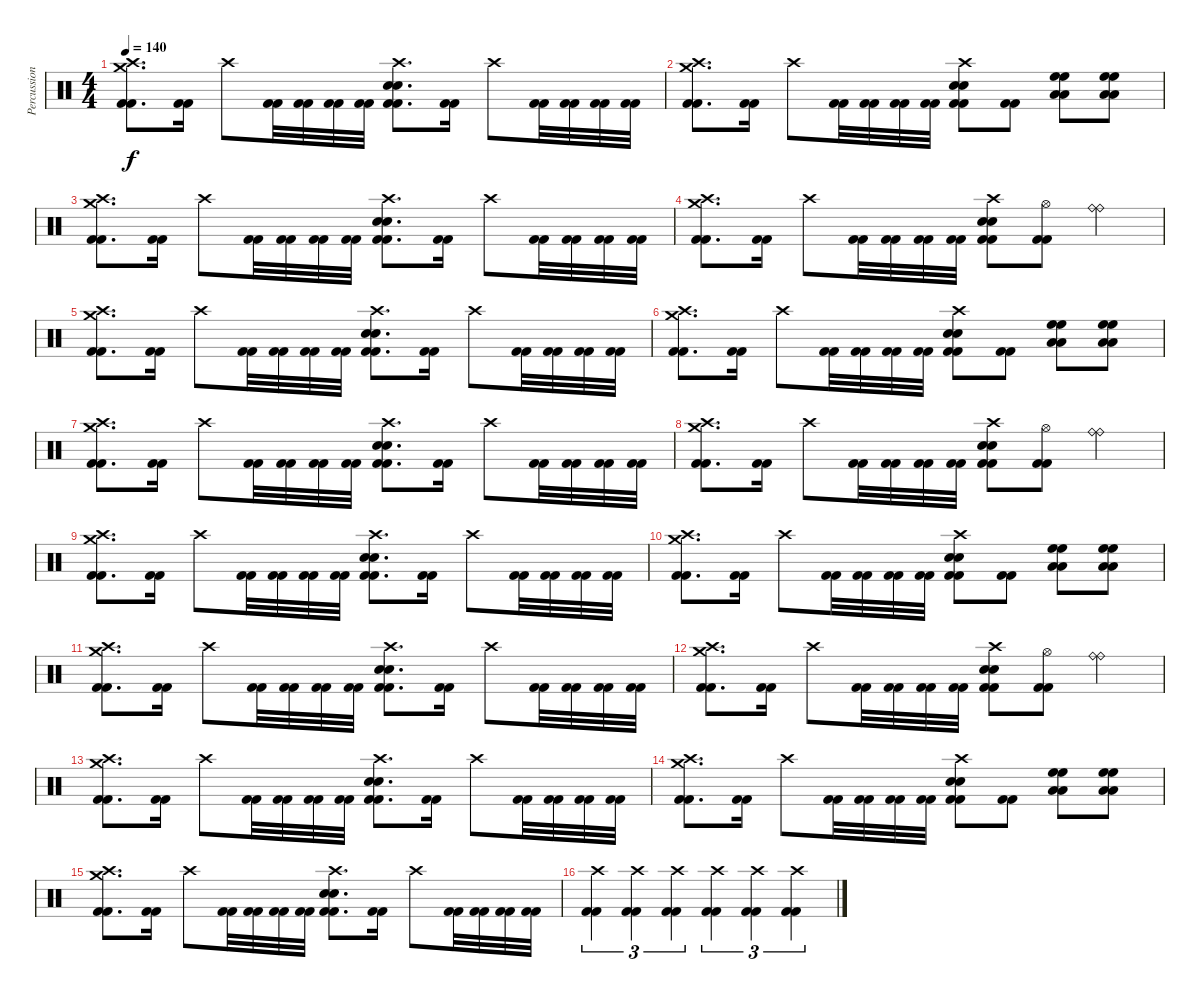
\track ("Percussions" "Percussion") {instrument percussion}
\staff {score}
\articulation defaults
\ts (4 4)
\tempo 140
\clef neutral
\ks c
("Crash high (hit)" "Crash medium (hit)" "Kick (hit) 2" "Kick (hit) 2").8{d dy f} ("Kick (hit) 2" "Kick (hit) 2").16 "Crash high (hit)".8 ("Kick (hit) 2" "Kick (hit) 2").32 ("Kick (hit) 2" "Kick (hit) 2").32 ("Kick (hit) 2" "Kick (hit) 2").32 ("Kick (hit) 2" "Kick (hit) 2").32 ("Crash high (hit)" "Electric Snare (hit)" "Electric Snare (hit)" "Kick (hit) 2" "Kick (hit) 2").8{d} ("Kick (hit) 2" "Kick (hit) 2").16 "Crash high (hit)".8 ("Kick (hit) 2" "Kick (hit) 2").32 ("Kick (hit) 2" "Kick (hit) 2").32 ("Kick (hit) 2" "Kick (hit) 2").32 ("Kick (hit) 2" "Kick (hit) 2").32 |
("Crash high (hit)" "Crash medium (hit)" "Kick (hit) 2" "Kick (hit) 2").8{d} ("Kick (hit) 2" "Kick (hit) 2").16 "Crash high (hit)".8 ("Kick (hit) 2" "Kick (hit) 2").32 ("Kick (hit) 2" "Kick (hit) 2").32 ("Kick (hit) 2" "Kick (hit) 2").32 ("Kick (hit) 2" "Kick (hit) 2").32 ("Crash high (hit)" "Electric Snare (hit)" "Electric Snare (hit)" "Kick (hit) 2" "Kick (hit) 2").8 ("Kick (hit) 2" "Kick (hit) 2").8 ("Low Tom (hit)" "Low Tom (hit)" "High Floor Tom (hit)" "High Floor Tom (hit)").8 ("Low Tom (hit)" "Low Tom (hit)" "High Floor Tom (hit)" "High Floor Tom (hit)").8 |
("Crash high (hit)" "Crash medium (hit)" "Kick (hit) 2" "Kick (hit) 2").8{d} ("Kick (hit) 2" "Kick (hit) 2").16 "Crash high (hit)".8 ("Kick (hit) 2" "Kick (hit) 2").32 ("Kick (hit) 2" "Kick (hit) 2").32 ("Kick (hit) 2" "Kick (hit) 2").32 ("Kick (hit) 2" "Kick (hit) 2").32 ("Crash high (hit)" "Electric Snare (hit)" "Electric Snare (hit)" "Kick (hit) 2" "Kick (hit) 2").8{d} ("Kick (hit) 2" "Kick (hit) 2").16 "Crash high (hit)".8 ("Kick (hit) 2" "Kick (hit) 2").32 ("Kick (hit) 2" "Kick (hit) 2").32 ("Kick (hit) 2" "Kick (hit) 2").32 ("Kick (hit) 2" "Kick (hit) 2").32 |
("Crash high (hit)" "Crash medium (hit)" "Kick (hit) 2" "Kick (hit) 2").8{d} ("Kick (hit) 2" "Kick (hit) 2").16 "Crash high (hit)".8 ("Kick (hit) 2" "Kick (hit) 2").32 ("Kick (hit) 2" "Kick (hit) 2").32 ("Kick (hit) 2" "Kick (hit) 2").32 ("Kick (hit) 2" "Kick (hit) 2").32 ("Crash high (hit)" "Electric Snare (hit)" "Electric Snare (hit)" "Kick (hit) 2" "Kick (hit) 2").8 ("Hi-Hat (open)" "Kick (hit) 2" "Kick (hit) 2").8 ("Ride (bell)" "Ride (bell)").4 |
("Crash high (hit)" "Crash medium (hit)" "Kick (hit) 2" "Kick (hit) 2").8{d} ("Kick (hit) 2" "Kick (hit) 2").16 "Crash high (hit)".8 ("Kick (hit) 2" "Kick (hit) 2").32 ("Kick (hit) 2" "Kick (hit) 2").32 ("Kick (hit) 2" "Kick (hit) 2").32 ("Kick (hit) 2" "Kick (hit) 2").32 ("Crash high (hit)" "Electric Snare (hit)" "Electric Snare (hit)" "Kick (hit) 2" "Kick (hit) 2").8{d} ("Kick (hit) 2" "Kick (hit) 2").16 "Crash high (hit)".8 ("Kick (hit) 2" "Kick (hit) 2").32 ("Kick (hit) 2" "Kick (hit) 2").32 ("Kick (hit) 2" "Kick (hit) 2").32 ("Kick (hit) 2" "Kick (hit) 2").32 |
("Crash high (hit)" "Crash medium (hit)" "Kick (hit) 2" "Kick (hit) 2").8{d} ("Kick (hit) 2" "Kick (hit) 2").16 "Crash high (hit)".8 ("Kick (hit) 2" "Kick (hit) 2").32 ("Kick (hit) 2" "Kick (hit) 2").32 ("Kick (hit) 2" "Kick (hit) 2").32 ("Kick (hit) 2" "Kick (hit) 2").32 ("Crash high (hit)" "Electric Snare (hit)" "Electric Snare (hit)" "Kick (hit) 2" "Kick (hit) 2").8 ("Kick (hit) 2" "Kick (hit) 2").8 ("Low Tom (hit)" "Low Tom (hit)" "High Floor Tom (hit)" "High Floor Tom (hit)").8 ("Low Tom (hit)" "Low Tom (hit)" "High Floor Tom (hit)" "High Floor Tom (hit)").8 |
("Crash high (hit)" "Crash medium (hit)" "Kick (hit) 2" "Kick (hit) 2").8{d} ("Kick (hit) 2" "Kick (hit) 2").16 "Crash high (hit)".8 ("Kick (hit) 2" "Kick (hit) 2").32 ("Kick (hit) 2" "Kick (hit) 2").32 ("Kick (hit) 2" "Kick (hit) 2").32 ("Kick (hit) 2" "Kick (hit) 2").32 ("Crash high (hit)" "Electric Snare (hit)" "Electric Snare (hit)" "Kick (hit) 2" "Kick (hit) 2").8{d} ("Kick (hit) 2" "Kick (hit) 2").16 "Crash high (hit)".8 ("Kick (hit) 2" "Kick (hit) 2").32 ("Kick (hit) 2" "Kick (hit) 2").32 ("Kick (hit) 2" "Kick (hit) 2").32 ("Kick (hit) 2" "Kick (hit) 2").32 |
("Crash high (hit)" "Crash medium (hit)" "Kick (hit) 2" "Kick (hit) 2").8{d} ("Kick (hit) 2" "Kick (hit) 2").16 "Crash high (hit)".8 ("Kick (hit) 2" "Kick (hit) 2").32 ("Kick (hit) 2" "Kick (hit) 2").32 ("Kick (hit) 2" "Kick (hit) 2").32 ("Kick (hit) 2" "Kick (hit) 2").32 ("Crash high (hit)" "Electric Snare (hit)" "Electric Snare (hit)" "Kick (hit) 2" "Kick (hit) 2").8 ("Hi-Hat (open)" "Kick (hit) 2" "Kick (hit) 2").8 ("Ride (bell)" "Ride (bell)").4 |
("Crash high (hit)" "Crash medium (hit)" "Kick (hit) 2" "Kick (hit) 2").8{d} ("Kick (hit) 2" "Kick (hit) 2").16 "Crash high (hit)".8 ("Kick (hit) 2" "Kick (hit) 2").32 ("Kick (hit) 2" "Kick (hit) 2").32 ("Kick (hit) 2" "Kick (hit) 2").32 ("Kick (hit) 2" "Kick (hit) 2").32 ("Crash high (hit)" "Electric Snare (hit)" "Electric Snare (hit)" "Kick (hit) 2" "Kick (hit) 2").8{d} ("Kick (hit) 2" "Kick (hit) 2").16 "Crash high (hit)".8 ("Kick (hit) 2" "Kick (hit) 2").32 ("Kick (hit) 2" "Kick (hit) 2").32 ("Kick (hit) 2" "Kick (hit) 2").32 ("Kick (hit) 2" "Kick (hit) 2").32 |
("Crash high (hit)" "Crash medium (hit)" "Kick (hit) 2" "Kick (hit) 2").8{d} ("Kick (hit) 2" "Kick (hit) 2").16 "Crash high (hit)".8 ("Kick (hit) 2" "Kick (hit) 2").32 ("Kick (hit) 2" "Kick (hit) 2").32 ("Kick (hit) 2" "Kick (hit) 2").32 ("Kick (hit) 2" "Kick (hit) 2").32 ("Crash high (hit)" "Electric Snare (hit)" "Electric Snare (hit)" "Kick (hit) 2" "Kick (hit) 2").8 ("Kick (hit) 2" "Kick (hit) 2").8 ("Low Tom (hit)" "Low Tom (hit)" "High Floor Tom (hit)" "High Floor Tom (hit)").8 ("Low Tom (hit)" "Low Tom (hit)" "High Floor Tom (hit)" "High Floor Tom (hit)").8 |
("Crash high (hit)" "Crash medium (hit)" "Kick (hit) 2" "Kick (hit) 2").8{d} ("Kick (hit) 2" "Kick (hit) 2").16 "Crash high (hit)".8 ("Kick (hit) 2" "Kick (hit) 2").32 ("Kick (hit) 2" "Kick (hit) 2").32 ("Kick (hit) 2" "Kick (hit) 2").32 ("Kick (hit) 2" "Kick (hit) 2").32 ("Crash high (hit)" "Electric Snare (hit)" "Electric Snare (hit)" "Kick (hit) 2" "Kick (hit) 2").8{d} ("Kick (hit) 2" "Kick (hit) 2").16 "Crash high (hit)".8 ("Kick (hit) 2" "Kick (hit) 2").32 ("Kick (hit) 2" "Kick (hit) 2").32 ("Kick (hit) 2" "Kick (hit) 2").32 ("Kick (hit) 2" "Kick (hit) 2").32 |
("Crash high (hit)" "Crash medium (hit)" "Kick (hit) 2" "Kick (hit) 2").8{d} ("Kick (hit) 2" "Kick (hit) 2").16 "Crash high (hit)".8 ("Kick (hit) 2" "Kick (hit) 2").32 ("Kick (hit) 2" "Kick (hit) 2").32 ("Kick (hit) 2" "Kick (hit) 2").32 ("Kick (hit) 2" "Kick (hit) 2").32 ("Crash high (hit)" "Electric Snare (hit)" "Electric Snare (hit)" "Kick (hit) 2" "Kick (hit) 2").8 ("Hi-Hat (open)" "Kick (hit) 2" "Kick (hit) 2").8 ("Ride (bell)" "Ride (bell)").4 |
("Crash high (hit)" "Crash medium (hit)" "Kick (hit) 2" "Kick (hit) 2").8{d} ("Kick (hit) 2" "Kick (hit) 2").16 "Crash high (hit)".8 ("Kick (hit) 2" "Kick (hit) 2").32 ("Kick (hit) 2" "Kick (hit) 2").32 ("Kick (hit) 2" "Kick (hit) 2").32 ("Kick (hit) 2" "Kick (hit) 2").32 ("Crash high (hit)" "Electric Snare (hit)" "Electric Snare (hit)" "Kick (hit) 2" "Kick (hit) 2").8{d} ("Kick (hit) 2" "Kick (hit) 2").16 "Crash high (hit)".8 ("Kick (hit) 2" "Kick (hit) 2").32 ("Kick (hit) 2" "Kick (hit) 2").32 ("Kick (hit) 2" "Kick (hit) 2").32 ("Kick (hit) 2" "Kick (hit) 2").32 |
("Crash high (hit)" "Crash medium (hit)" "Kick (hit) 2" "Kick (hit) 2").8{d} ("Kick (hit) 2" "Kick (hit) 2").16 "Crash high (hit)".8 ("Kick (hit) 2" "Kick (hit) 2").32 ("Kick (hit) 2" "Kick (hit) 2").32 ("Kick (hit) 2" "Kick (hit) 2").32 ("Kick (hit) 2" "Kick (hit) 2").32 ("Crash high (hit)" "Electric Snare (hit)" "Electric Snare (hit)" "Kick (hit) 2" "Kick (hit) 2").8 ("Kick (hit) 2" "Kick (hit) 2").8 ("Low Tom (hit)" "Low Tom (hit)" "High Floor Tom (hit)" "High Floor Tom (hit)").8 ("Low Tom (hit)" "Low Tom (hit)" "High Floor Tom (hit)" "High Floor Tom (hit)").8 |
("Crash high (hit)" "Crash medium (hit)" "Kick (hit) 2" "Kick (hit) 2").8{d} ("Kick (hit) 2" "Kick (hit) 2").16 "Crash high (hit)".8 ("Kick (hit) 2" "Kick (hit) 2").32 ("Kick (hit) 2" "Kick (hit) 2").32 ("Kick (hit) 2" "Kick (hit) 2").32 ("Kick (hit) 2" "Kick (hit) 2").32 ("Crash high (hit)" "Electric Snare (hit)" "Electric Snare (hit)" "Kick (hit) 2" "Kick (hit) 2").8{d} ("Kick (hit) 2" "Kick (hit) 2").16 "Crash high (hit)".8 ("Kick (hit) 2" "Kick (hit) 2").32 ("Kick (hit) 2" "Kick (hit) 2").32 ("Kick (hit) 2" "Kick (hit) 2").32 ("Kick (hit) 2" "Kick (hit) 2").32 |
("Crash high (hit)" "Kick (hit) 2" "Kick (hit) 2").4{tu (3 2)} ("Crash high (hit)" "Kick (hit) 2" "Kick (hit) 2").4{tu (3 2)} ("Crash high (hit)" "Kick (hit) 2" "Kick (hit) 2").4{tu (3 2)} ("Crash high (hit)" "Kick (hit) 2" "Kick (hit) 2").4{tu (3 2)} ("Crash high (hit)" "Kick (hit) 2" "Kick (hit) 2").4{tu (3 2)} ("Crash high (hit)" "Kick (hit) 2" "Kick (hit) 2").4{tu (3 2)}
